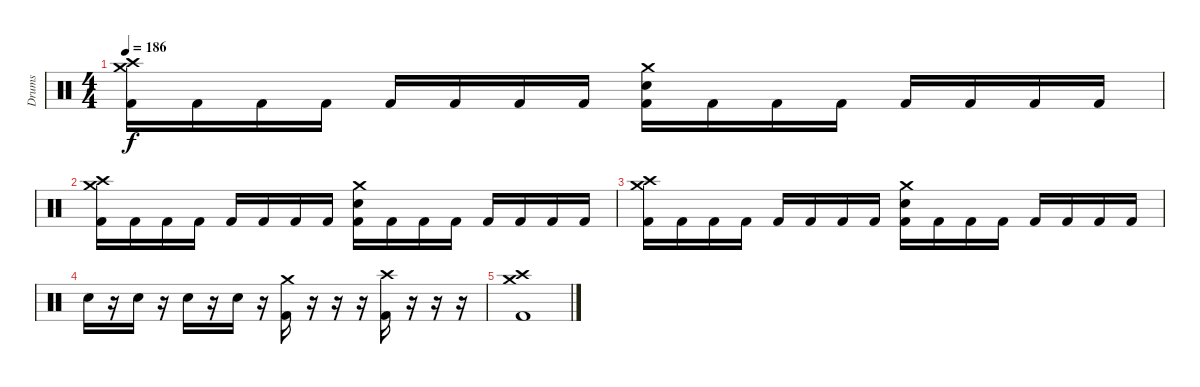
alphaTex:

\track ("Drums" "Drums") {instrument percussion}
\staff {score}
\articulation defaults
\ts (4 4)
\tempo 186
\clef neutral
\ks c
("Crash high (hit)" "Crash medium (hit)" "Kick (hit) 2").16{dy f} "Kick (hit) 2".16 "Kick (hit) 2".16 "Kick (hit) 2".16 "Kick (hit) 2".16 "Kick (hit) 2".16 "Kick (hit) 2".16 "Kick (hit) 2".16 ("Crash medium (hit)" "Snare (hit) 2" "Kick (hit) 2").16 "Kick (hit) 2".16 "Kick (hit) 2".16 "Kick (hit) 2".16 "Kick (hit) 2".16 "Kick (hit) 2".16 "Kick (hit) 2".16 "Kick (hit) 2".16 |
("Crash high (hit)" "Crash medium (hit)" "Kick (hit) 2").16 "Kick (hit) 2".16 "Kick (hit) 2".16 "Kick (hit) 2".16 "Kick (hit) 2".16 "Kick (hit) 2".16 "Kick (hit) 2".16 "Kick (hit) 2".16 ("Crash medium (hit)" "Snare (hit) 2" "Kick (hit) 2").16 "Kick (hit) 2".16 "Kick (hit) 2".16 "Kick (hit) 2".16 "Kick (hit) 2".16 "Kick (hit) 2".16 "Kick (hit) 2".16 "Kick (hit) 2".16 |
("Crash high (hit)" "Crash medium (hit)" "Kick (hit) 2").16 "Kick (hit) 2".16 "Kick (hit) 2".16 "Kick (hit) 2".16 "Kick (hit) 2".16 "Kick (hit) 2".16 "Kick (hit) 2".16 "Kick (hit) 2".16 ("Crash medium (hit)" "Snare (hit) 2" "Kick (hit) 2").16 "Kick (hit) 2".16 "Kick (hit) 2".16 "Kick (hit) 2".16 "Kick (hit) 2".16 "Kick (hit) 2".16 "Kick (hit) 2".16 "Kick (hit) 2".16 |
"Snare (hit) 2".16 r.16 "Snare (hit) 2".16 r.16 "Snare (hit) 2".16 r.16 "Snare (hit) 2".16 r.16 ("Crash medium (hit)" "Kick (hit) 2").16 r.16 r.16 r.16 ("Crash high (hit)" "Kick (hit) 2").16 r.16 r.16 r.16 |
("Crash high (hit)" "Crash medium (hit)" "Kick (hit) 2").1
